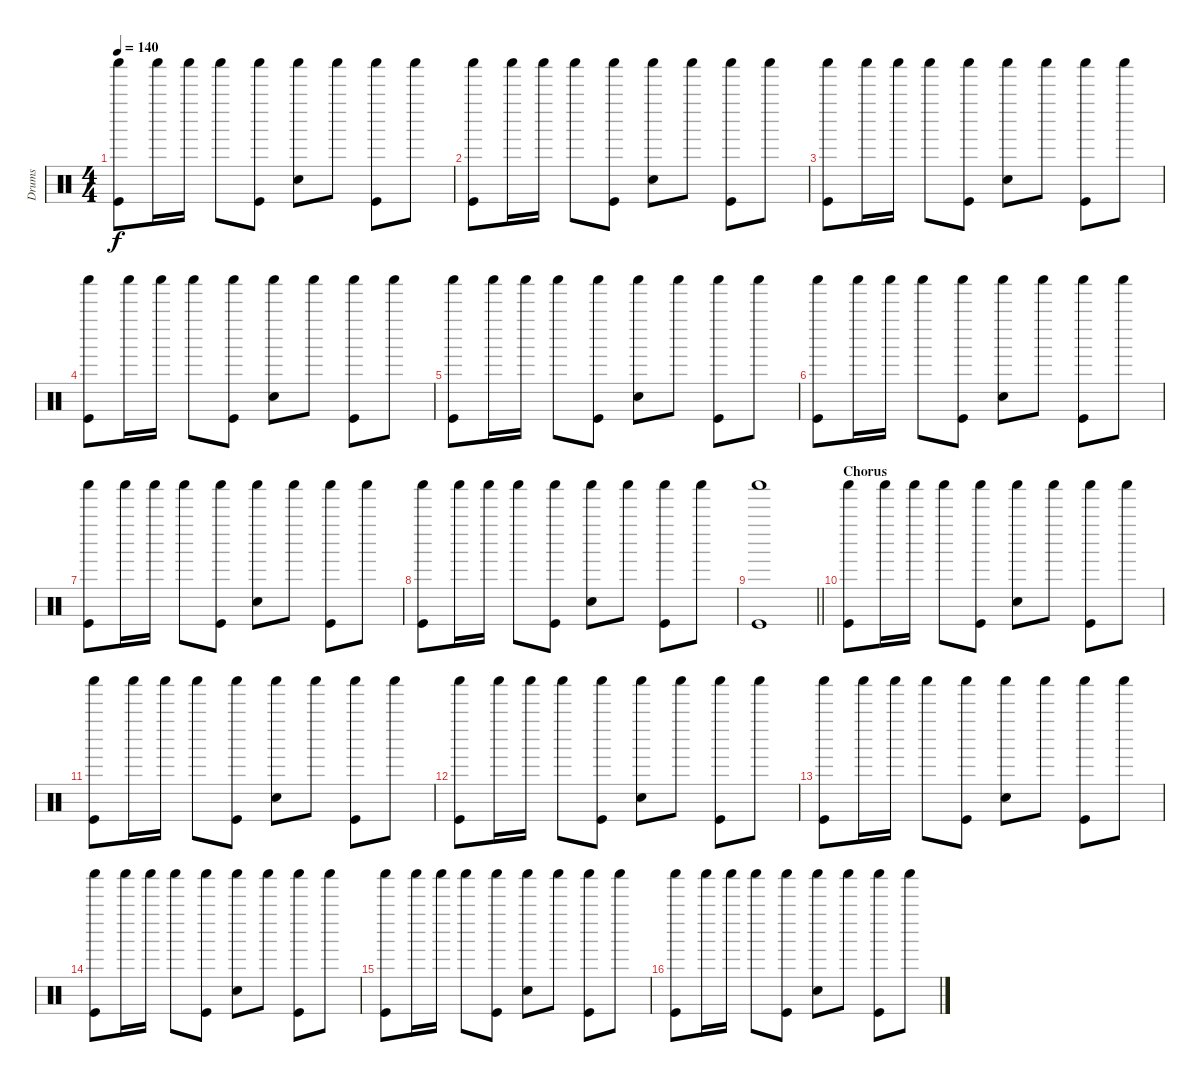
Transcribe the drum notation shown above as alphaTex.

\track ("Drums" "Drums") {instrument percussion}
\staff {score}
\articulation defaults
\ts (4 4)
\tempo 140
\clef neutral
\ks c
("Shaker (hit)" "Kick (hit)").8{dy f} "Shaker (hit)".16 "Shaker (hit)".16 "Shaker (hit)".8 ("Shaker (hit)" "Kick (hit)").8 ("Shaker (hit)" "Hand Clap (hit)").8 "Shaker (hit)".8 ("Shaker (hit)" "Kick (hit)").8 "Shaker (hit)".8 |
("Shaker (hit)" "Kick (hit)").8 "Shaker (hit)".16 "Shaker (hit)".16 "Shaker (hit)".8 ("Shaker (hit)" "Kick (hit)").8 ("Shaker (hit)" "Hand Clap (hit)").8 "Shaker (hit)".8 ("Shaker (hit)" "Kick (hit)").8 "Shaker (hit)".8 |
("Shaker (hit)" "Kick (hit)").8 "Shaker (hit)".16 "Shaker (hit)".16 "Shaker (hit)".8 ("Shaker (hit)" "Kick (hit)").8 ("Shaker (hit)" "Hand Clap (hit)").8 "Shaker (hit)".8 ("Shaker (hit)" "Kick (hit)").8 "Shaker (hit)".8 |
("Shaker (hit)" "Kick (hit)").8 "Shaker (hit)".16 "Shaker (hit)".16 "Shaker (hit)".8 ("Shaker (hit)" "Kick (hit)").8 ("Shaker (hit)" "Hand Clap (hit)").8 "Shaker (hit)".8 ("Shaker (hit)" "Kick (hit)").8 "Shaker (hit)".8 |
("Shaker (hit)" "Kick (hit)").8 "Shaker (hit)".16 "Shaker (hit)".16 "Shaker (hit)".8 ("Shaker (hit)" "Kick (hit)").8 ("Shaker (hit)" "Hand Clap (hit)").8 "Shaker (hit)".8 ("Shaker (hit)" "Kick (hit)").8 "Shaker (hit)".8 |
("Shaker (hit)" "Kick (hit)").8 "Shaker (hit)".16 "Shaker (hit)".16 "Shaker (hit)".8 ("Shaker (hit)" "Kick (hit)").8 ("Shaker (hit)" "Hand Clap (hit)").8 "Shaker (hit)".8 ("Shaker (hit)" "Kick (hit)").8 "Shaker (hit)".8 |
("Shaker (hit)" "Kick (hit)").8 "Shaker (hit)".16 "Shaker (hit)".16 "Shaker (hit)".8 ("Shaker (hit)" "Kick (hit)").8 ("Shaker (hit)" "Hand Clap (hit)").8 "Shaker (hit)".8 ("Shaker (hit)" "Kick (hit)").8 "Shaker (hit)".8 |
("Shaker (hit)" "Kick (hit)").8 "Shaker (hit)".16 "Shaker (hit)".16 "Shaker (hit)".8 ("Shaker (hit)" "Kick (hit)").8 ("Shaker (hit)" "Hand Clap (hit)").8 "Shaker (hit)".8 ("Shaker (hit)" "Kick (hit)").8 "Shaker (hit)".8 |
\barLineRight lightlight
("Shaker (hit)" "Kick (hit)").1 |
\section ("" "Chorus")
("Shaker (hit)" "Kick (hit)").8 "Shaker (hit)".16 "Shaker (hit)".16 "Shaker (hit)".8 ("Shaker (hit)" "Kick (hit)").8 ("Shaker (hit)" "Hand Clap (hit)").8 "Shaker (hit)".8 ("Shaker (hit)" "Kick (hit)").8 "Shaker (hit)".8 |
("Shaker (hit)" "Kick (hit)").8 "Shaker (hit)".16 "Shaker (hit)".16 "Shaker (hit)".8 ("Shaker (hit)" "Kick (hit)").8 ("Shaker (hit)" "Hand Clap (hit)").8 "Shaker (hit)".8 ("Shaker (hit)" "Kick (hit)").8 "Shaker (hit)".8 |
("Shaker (hit)" "Kick (hit)").8 "Shaker (hit)".16 "Shaker (hit)".16 "Shaker (hit)".8 ("Shaker (hit)" "Kick (hit)").8 ("Shaker (hit)" "Hand Clap (hit)").8 "Shaker (hit)".8 ("Shaker (hit)" "Kick (hit)").8 "Shaker (hit)".8 |
("Shaker (hit)" "Kick (hit)").8 "Shaker (hit)".16 "Shaker (hit)".16 "Shaker (hit)".8 ("Shaker (hit)" "Kick (hit)").8 ("Shaker (hit)" "Hand Clap (hit)").8 "Shaker (hit)".8 ("Shaker (hit)" "Kick (hit)").8 "Shaker (hit)".8 |
("Shaker (hit)" "Kick (hit)").8 "Shaker (hit)".16 "Shaker (hit)".16 "Shaker (hit)".8 ("Shaker (hit)" "Kick (hit)").8 ("Shaker (hit)" "Hand Clap (hit)").8 "Shaker (hit)".8 ("Shaker (hit)" "Kick (hit)").8 "Shaker (hit)".8 |
("Shaker (hit)" "Kick (hit)").8 "Shaker (hit)".16 "Shaker (hit)".16 "Shaker (hit)".8 ("Shaker (hit)" "Kick (hit)").8 ("Shaker (hit)" "Hand Clap (hit)").8 "Shaker (hit)".8 ("Shaker (hit)" "Kick (hit)").8 "Shaker (hit)".8 |
("Shaker (hit)" "Kick (hit)").8 "Shaker (hit)".16 "Shaker (hit)".16 "Shaker (hit)".8 ("Shaker (hit)" "Kick (hit)").8 ("Shaker (hit)" "Hand Clap (hit)").8 "Shaker (hit)".8 ("Shaker (hit)" "Kick (hit)").8 "Shaker (hit)".8
